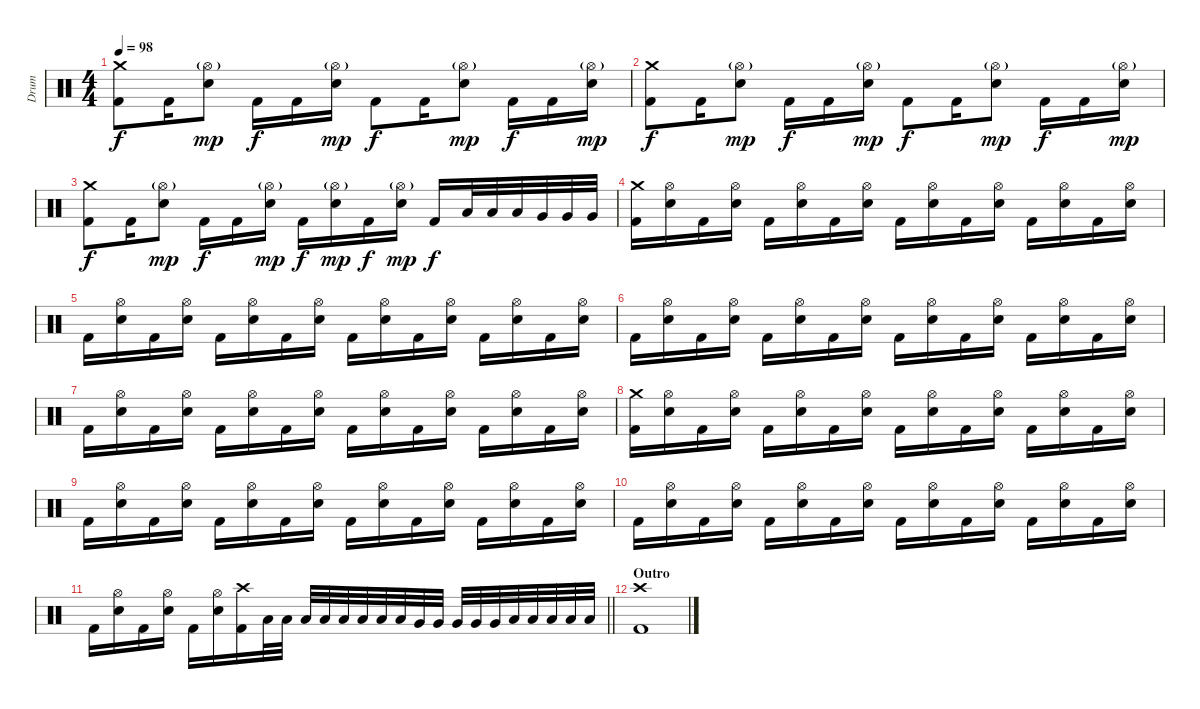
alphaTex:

\track ("Drum" "Drum") {instrument percussion}
\staff {score}
\articulation defaults
\ts (4 4)
\tempo 98
\clef neutral
\ks c
("Crash medium (hit)" "Kick (hit) 2").8{dy f} "Kick (hit) 2".16 ("Hi-Hat (open)"{g} "Electric Snare (hit)").8{dy mp} "Kick (hit) 2".16{dy f} "Kick (hit) 2".16 ("Hi-Hat (open)"{g} "Electric Snare (hit)").16{dy mp} "Kick (hit) 2".8{dy f} "Kick (hit) 2".16 ("Hi-Hat (open)"{g} "Electric Snare (hit)").8{dy mp} "Kick (hit) 2".16{dy f} "Kick (hit) 2".16 ("Hi-Hat (open)"{g} "Electric Snare (hit)").16{dy mp} |
("Crash medium (hit)" "Kick (hit) 2").8{dy f} "Kick (hit) 2".16 ("Hi-Hat (open)"{g} "Electric Snare (hit)").8{dy mp} "Kick (hit) 2".16{dy f} "Kick (hit) 2".16 ("Hi-Hat (open)"{g} "Electric Snare (hit)").16{dy mp} "Kick (hit) 2".8{dy f} "Kick (hit) 2".16 ("Hi-Hat (open)"{g} "Electric Snare (hit)").8{dy mp} "Kick (hit) 2".16{dy f} "Kick (hit) 2".16 ("Hi-Hat (open)"{g} "Electric Snare (hit)").16{dy mp} |
("Crash medium (hit)" "Kick (hit) 2").8{dy f} "Kick (hit) 2".16 ("Hi-Hat (open)"{g} "Electric Snare (hit)").8{dy mp} "Kick (hit) 2".16{dy f} "Kick (hit) 2".16 ("Hi-Hat (open)"{g} "Electric Snare (hit)").16{dy mp} "Kick (hit) 2".16{dy f} ("Hi-Hat (open)"{g} "Electric Snare (hit)").16{dy mp} "Kick (hit) 2".16{dy f} ("Hi-Hat (open)"{g} "Electric Snare (hit)").16{dy mp} "Kick (hit) 2".16{dy f} "Low Tom (hit)".32 "Low Tom (hit)".32 "Low Tom (hit)".32 "Very Low Tom (hit)".32 "Very Low Tom (hit)".32 "Very Low Tom (hit)".32 |
("Crash medium (hit)" "Kick (hit) 2").16 ("Hi-Hat (open)" "Electric Snare (hit)").16 "Kick (hit) 2".16 ("Hi-Hat (open)" "Electric Snare (hit)").16 "Kick (hit) 2".16 ("Hi-Hat (open)" "Electric Snare (hit)").16 "Kick (hit) 2".16 ("Hi-Hat (open)" "Electric Snare (hit)").16 "Kick (hit) 2".16 ("Hi-Hat (open)" "Electric Snare (hit)").16 "Kick (hit) 2".16 ("Hi-Hat (open)" "Electric Snare (hit)").16 "Kick (hit) 2".16 ("Hi-Hat (open)" "Electric Snare (hit)").16 "Kick (hit) 2".16 ("Hi-Hat (open)" "Electric Snare (hit)").16 |
"Kick (hit) 2".16 ("Hi-Hat (open)" "Electric Snare (hit)").16 "Kick (hit) 2".16 ("Hi-Hat (open)" "Electric Snare (hit)").16 "Kick (hit) 2".16 ("Hi-Hat (open)" "Electric Snare (hit)").16 "Kick (hit) 2".16 ("Hi-Hat (open)" "Electric Snare (hit)").16 "Kick (hit) 2".16 ("Hi-Hat (open)" "Electric Snare (hit)").16 "Kick (hit) 2".16 ("Hi-Hat (open)" "Electric Snare (hit)").16 "Kick (hit) 2".16 ("Hi-Hat (open)" "Electric Snare (hit)").16 "Kick (hit) 2".16 ("Hi-Hat (open)" "Electric Snare (hit)").16 |
"Kick (hit) 2".16 ("Hi-Hat (open)" "Electric Snare (hit)").16 "Kick (hit) 2".16 ("Hi-Hat (open)" "Electric Snare (hit)").16 "Kick (hit) 2".16 ("Hi-Hat (open)" "Electric Snare (hit)").16 "Kick (hit) 2".16 ("Hi-Hat (open)" "Electric Snare (hit)").16 "Kick (hit) 2".16 ("Hi-Hat (open)" "Electric Snare (hit)").16 "Kick (hit) 2".16 ("Hi-Hat (open)" "Electric Snare (hit)").16 "Kick (hit) 2".16 ("Hi-Hat (open)" "Electric Snare (hit)").16 "Kick (hit) 2".16 ("Hi-Hat (open)" "Electric Snare (hit)").16 |
"Kick (hit) 2".16 ("Hi-Hat (open)" "Electric Snare (hit)").16 "Kick (hit) 2".16 ("Hi-Hat (open)" "Electric Snare (hit)").16 "Kick (hit) 2".16 ("Hi-Hat (open)" "Electric Snare (hit)").16 "Kick (hit) 2".16 ("Hi-Hat (open)" "Electric Snare (hit)").16 "Kick (hit) 2".16 ("Hi-Hat (open)" "Electric Snare (hit)").16 "Kick (hit) 2".16 ("Hi-Hat (open)" "Electric Snare (hit)").16 "Kick (hit) 2".16 ("Hi-Hat (open)" "Electric Snare (hit)").16 "Kick (hit) 2".16 ("Hi-Hat (open)" "Electric Snare (hit)").16 |
("Crash medium (hit)" "Kick (hit) 2").16 ("Hi-Hat (open)" "Electric Snare (hit)").16 "Kick (hit) 2".16 ("Hi-Hat (open)" "Electric Snare (hit)").16 "Kick (hit) 2".16 ("Hi-Hat (open)" "Electric Snare (hit)").16 "Kick (hit) 2".16 ("Hi-Hat (open)" "Electric Snare (hit)").16 "Kick (hit) 2".16 ("Hi-Hat (open)" "Electric Snare (hit)").16 "Kick (hit) 2".16 ("Hi-Hat (open)" "Electric Snare (hit)").16 "Kick (hit) 2".16 ("Hi-Hat (open)" "Electric Snare (hit)").16 "Kick (hit) 2".16 ("Hi-Hat (open)" "Electric Snare (hit)").16 |
"Kick (hit) 2".16 ("Hi-Hat (open)" "Electric Snare (hit)").16 "Kick (hit) 2".16 ("Hi-Hat (open)" "Electric Snare (hit)").16 "Kick (hit) 2".16 ("Hi-Hat (open)" "Electric Snare (hit)").16 "Kick (hit) 2".16 ("Hi-Hat (open)" "Electric Snare (hit)").16 "Kick (hit) 2".16 ("Hi-Hat (open)" "Electric Snare (hit)").16 "Kick (hit) 2".16 ("Hi-Hat (open)" "Electric Snare (hit)").16 "Kick (hit) 2".16 ("Hi-Hat (open)" "Electric Snare (hit)").16 "Kick (hit) 2".16 ("Hi-Hat (open)" "Electric Snare (hit)").16 |
"Kick (hit) 2".16 ("Hi-Hat (open)" "Electric Snare (hit)").16 "Kick (hit) 2".16 ("Hi-Hat (open)" "Electric Snare (hit)").16 "Kick (hit) 2".16 ("Hi-Hat (open)" "Electric Snare (hit)").16 "Kick (hit) 2".16 ("Hi-Hat (open)" "Electric Snare (hit)").16 "Kick (hit) 2".16 ("Hi-Hat (open)" "Electric Snare (hit)").16 "Kick (hit) 2".16 ("Hi-Hat (open)" "Electric Snare (hit)").16 "Kick (hit) 2".16 ("Hi-Hat (open)" "Electric Snare (hit)").16 "Kick (hit) 2".16 ("Hi-Hat (open)" "Electric Snare (hit)").16 |
\barLineRight lightlight "Kick (hit) 2".16
("Hi-Hat (open)" "Electric Snare (hit)").16 "Kick (hit) 2".16 ("Hi-Hat (open)" "Electric Snare (hit)").16 "Kick (hit) 2".16 ("Hi-Hat (open)" "Electric Snare (hit)").16 ("Crash high (hit)" "Kick (hit) 2").16 "Low Tom (hit)".32 "Low Tom (hit)".32 "Low Tom (hit)".32 "Low Tom (hit)".32 "Low Tom (hit)".32 "Low Tom (hit)".32 "Low Tom (hit)".32 "Low Tom (hit)".32 "Very Low Tom (hit)".32 "Very Low Tom (hit)".32 "Very Low Tom (hit)".32 "Very Low Tom (hit)".32 "Very Low Tom (hit)".32 "Low Floor Tom (hit)".32 "Low Floor Tom (hit)".32 "Low Floor Tom (hit)".32 "Low Floor Tom (hit)".32 "Low Floor Tom (hit)".32 |
\section ("" "Outro")
("Crash high (hit)" "Kick (hit) 2").1
